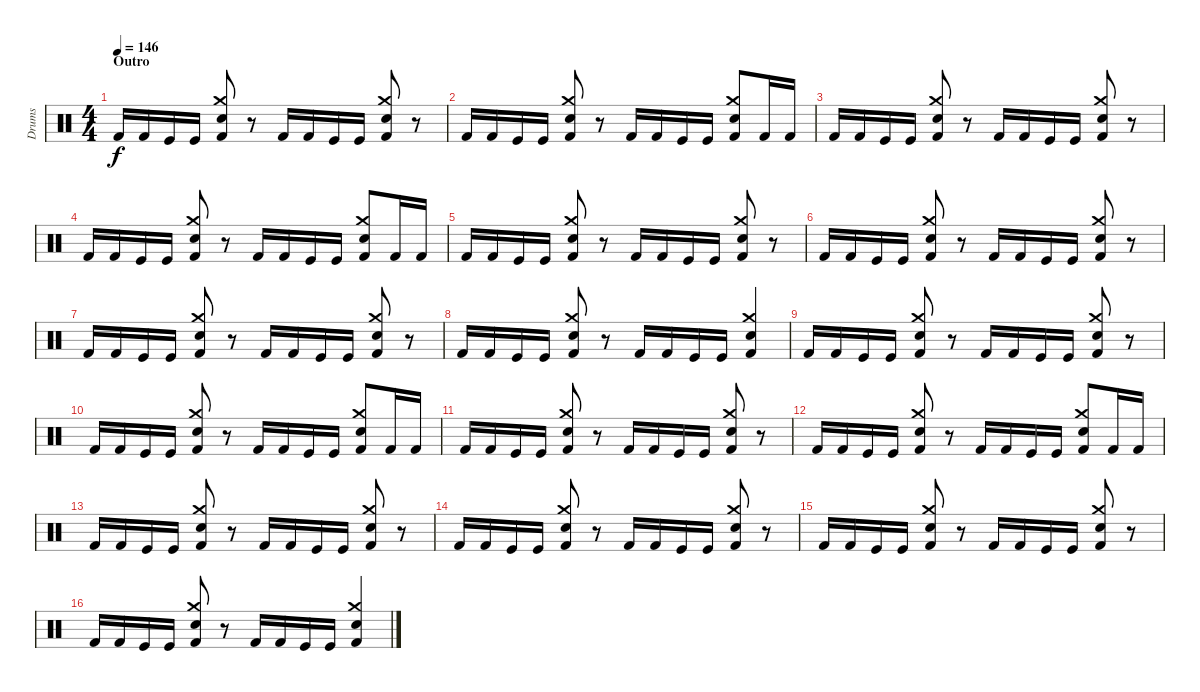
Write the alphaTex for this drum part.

\track ("Drums" "Drums") {instrument percussion}
\staff {score}
\articulation defaults
\ts (4 4)
\section ("" "Outro")
\tempo 146
\clef neutral
\ks c "Kick (hit) 2".16{dy f} "Kick (hit) 2".16 "Kick (hit)".16 "Kick (hit)".16
("Crash medium (hit)" "Snare (hit) 2" "Kick (hit) 2").8 r.8 "Kick (hit) 2".16 "Kick (hit) 2".16 "Kick (hit)".16 "Kick (hit)".16 ("Crash medium (hit)" "Snare (hit) 2" "Kick (hit) 2").8 r.8 |
"Kick (hit) 2".16 "Kick (hit) 2".16 "Kick (hit)".16 "Kick (hit)".16 ("Crash medium (hit)" "Snare (hit) 2" "Kick (hit) 2").8 r.8 "Kick (hit) 2".16 "Kick (hit) 2".16 "Kick (hit)".16 "Kick (hit)".16 ("Crash medium (hit)" "Snare (hit) 2" "Kick (hit) 2").8 "Kick (hit) 2".16 "Kick (hit) 2".16 |
"Kick (hit) 2".16 "Kick (hit) 2".16 "Kick (hit)".16 "Kick (hit)".16 ("Crash medium (hit)" "Snare (hit) 2" "Kick (hit) 2").8 r.8 "Kick (hit) 2".16 "Kick (hit) 2".16 "Kick (hit)".16 "Kick (hit)".16 ("Crash medium (hit)" "Snare (hit) 2" "Kick (hit) 2").8 r.8 |
"Kick (hit) 2".16 "Kick (hit) 2".16 "Kick (hit)".16 "Kick (hit)".16 ("Crash medium (hit)" "Snare (hit) 2" "Kick (hit) 2").8 r.8 "Kick (hit) 2".16 "Kick (hit) 2".16 "Kick (hit)".16 "Kick (hit)".16 ("Crash medium (hit)" "Snare (hit) 2" "Kick (hit) 2").8 "Kick (hit) 2".16 "Kick (hit) 2".16 |
"Kick (hit) 2".16 "Kick (hit) 2".16 "Kick (hit)".16 "Kick (hit)".16 ("Crash medium (hit)" "Snare (hit) 2" "Kick (hit) 2").8 r.8 "Kick (hit) 2".16 "Kick (hit) 2".16 "Kick (hit)".16 "Kick (hit)".16 ("Crash medium (hit)" "Snare (hit) 2" "Kick (hit) 2").8 r.8 |
"Kick (hit) 2".16 "Kick (hit) 2".16 "Kick (hit)".16 "Kick (hit)".16 ("Crash medium (hit)" "Snare (hit) 2" "Kick (hit) 2").8 r.8 "Kick (hit) 2".16 "Kick (hit) 2".16 "Kick (hit)".16 "Kick (hit)".16 ("Crash medium (hit)" "Snare (hit) 2" "Kick (hit) 2").8 r.8 |
"Kick (hit) 2".16 "Kick (hit) 2".16 "Kick (hit)".16 "Kick (hit)".16 ("Crash medium (hit)" "Snare (hit) 2" "Kick (hit) 2").8 r.8 "Kick (hit) 2".16 "Kick (hit) 2".16 "Kick (hit)".16 "Kick (hit)".16 ("Crash medium (hit)" "Snare (hit) 2" "Kick (hit) 2").8 r.8 |
"Kick (hit) 2".16 "Kick (hit) 2".16 "Kick (hit)".16 "Kick (hit)".16 ("Crash medium (hit)" "Snare (hit) 2" "Kick (hit) 2").8 r.8 "Kick (hit) 2".16 "Kick (hit) 2".16 "Kick (hit)".16 "Kick (hit)".16 ("Crash medium (hit)" "Snare (hit) 2" "Kick (hit) 2").4 |
"Kick (hit) 2".16 "Kick (hit) 2".16 "Kick (hit)".16 "Kick (hit)".16 ("Crash medium (hit)" "Snare (hit) 2" "Kick (hit) 2").8 r.8 "Kick (hit) 2".16 "Kick (hit) 2".16 "Kick (hit)".16 "Kick (hit)".16 ("Crash medium (hit)" "Snare (hit) 2" "Kick (hit) 2").8 r.8 |
"Kick (hit) 2".16 "Kick (hit) 2".16 "Kick (hit)".16 "Kick (hit)".16 ("Crash medium (hit)" "Snare (hit) 2" "Kick (hit) 2").8 r.8 "Kick (hit) 2".16 "Kick (hit) 2".16 "Kick (hit)".16 "Kick (hit)".16 ("Crash medium (hit)" "Snare (hit) 2" "Kick (hit) 2").8 "Kick (hit) 2".16 "Kick (hit) 2".16 |
"Kick (hit) 2".16 "Kick (hit) 2".16 "Kick (hit)".16 "Kick (hit)".16 ("Crash medium (hit)" "Snare (hit) 2" "Kick (hit) 2").8 r.8 "Kick (hit) 2".16 "Kick (hit) 2".16 "Kick (hit)".16 "Kick (hit)".16 ("Crash medium (hit)" "Snare (hit) 2" "Kick (hit) 2").8 r.8 |
"Kick (hit) 2".16 "Kick (hit) 2".16 "Kick (hit)".16 "Kick (hit)".16 ("Crash medium (hit)" "Snare (hit) 2" "Kick (hit) 2").8 r.8 "Kick (hit) 2".16 "Kick (hit) 2".16 "Kick (hit)".16 "Kick (hit)".16 ("Crash medium (hit)" "Snare (hit) 2" "Kick (hit) 2").8 "Kick (hit) 2".16 "Kick (hit) 2".16 |
"Kick (hit) 2".16 "Kick (hit) 2".16 "Kick (hit)".16 "Kick (hit)".16 ("Crash medium (hit)" "Snare (hit) 2" "Kick (hit) 2").8 r.8 "Kick (hit) 2".16 "Kick (hit) 2".16 "Kick (hit)".16 "Kick (hit)".16 ("Crash medium (hit)" "Snare (hit) 2" "Kick (hit) 2").8 r.8 |
"Kick (hit) 2".16 "Kick (hit) 2".16 "Kick (hit)".16 "Kick (hit)".16 ("Crash medium (hit)" "Snare (hit) 2" "Kick (hit) 2").8 r.8 "Kick (hit) 2".16 "Kick (hit) 2".16 "Kick (hit)".16 "Kick (hit)".16 ("Crash medium (hit)" "Snare (hit) 2" "Kick (hit) 2").8 r.8 |
"Kick (hit) 2".16 "Kick (hit) 2".16 "Kick (hit)".16 "Kick (hit)".16 ("Crash medium (hit)" "Snare (hit) 2" "Kick (hit) 2").8 r.8 "Kick (hit) 2".16 "Kick (hit) 2".16 "Kick (hit)".16 "Kick (hit)".16 ("Crash medium (hit)" "Snare (hit) 2" "Kick (hit) 2").8 r.8 |
"Kick (hit) 2".16 "Kick (hit) 2".16 "Kick (hit)".16 "Kick (hit)".16 ("Crash medium (hit)" "Snare (hit) 2" "Kick (hit) 2").8 r.8 "Kick (hit) 2".16 "Kick (hit) 2".16 "Kick (hit)".16 "Kick (hit)".16 ("Crash medium (hit)" "Snare (hit) 2" "Kick (hit) 2").4
